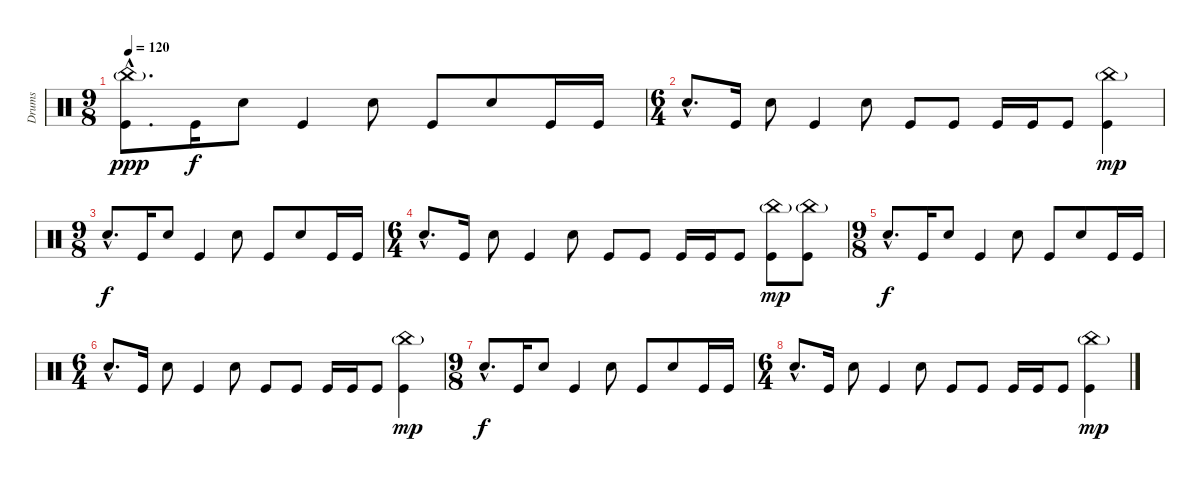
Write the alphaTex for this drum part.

\track ("Drums" "Drums") {instrument percussion}
\staff {score}
\articulation defaults
\ts (9 8)
\tempo 120
\clef neutral
\ks c
("China (hit)"{g hac} "Kick (hit)"{hac}).8{d dy ppp} "Kick (hit)".16{dy f} "Hand Clap (hit)".8 "Kick (hit)".4 "Hand Clap (hit)".8 "Kick (hit)".8 "Hand Clap (hit)".8 "Kick (hit)".16 "Kick (hit)".16 |
\ts (6 4)
"Hand Clap (hit)"{hac}.8{d} "Kick (hit)".16 "Hand Clap (hit)".8 "Kick (hit)".4 "Hand Clap (hit)".8 "Kick (hit)".8 "Kick (hit)".8 "Kick (hit)".16 "Kick (hit)".16 "Kick (hit)".8 ("China (hit)"{g} "Kick (hit)").4{dy mp} |
\ts (9 8)
"Hand Clap (hit)"{hac}.8{d dy f} "Kick (hit)".16 "Hand Clap (hit)".8 "Kick (hit)".4 "Hand Clap (hit)".8 "Kick (hit)".8 "Hand Clap (hit)".8 "Kick (hit)".16 "Kick (hit)".16 |
\ts (6 4)
"Hand Clap (hit)"{hac}.8{d} "Kick (hit)".16 "Hand Clap (hit)".8 "Kick (hit)".4 "Hand Clap (hit)".8 "Kick (hit)".8 "Kick (hit)".8 "Kick (hit)".16 "Kick (hit)".16 "Kick (hit)".8 ("China (hit)"{g} "Kick (hit)").8{dy mp} ("China (hit)"{g} "Kick (hit)").8 |
\ts (9 8)
"Hand Clap (hit)"{hac}.8{d dy f} "Kick (hit)".16 "Hand Clap (hit)".8 "Kick (hit)".4 "Hand Clap (hit)".8 "Kick (hit)".8 "Hand Clap (hit)".8 "Kick (hit)".16 "Kick (hit)".16 |
\ts (6 4)
"Hand Clap (hit)"{hac}.8{d} "Kick (hit)".16 "Hand Clap (hit)".8 "Kick (hit)".4 "Hand Clap (hit)".8 "Kick (hit)".8 "Kick (hit)".8 "Kick (hit)".16 "Kick (hit)".16 "Kick (hit)".8 ("China (hit)"{g} "Kick (hit)").4{dy mp} |
\ts (9 8)
"Hand Clap (hit)"{hac}.8{d dy f} "Kick (hit)".16 "Hand Clap (hit)".8 "Kick (hit)".4 "Hand Clap (hit)".8 "Kick (hit)".8 "Hand Clap (hit)".8 "Kick (hit)".16 "Kick (hit)".16 |
\ts (6 4)
"Hand Clap (hit)"{hac}.8{d} "Kick (hit)".16 "Hand Clap (hit)".8 "Kick (hit)".4 "Hand Clap (hit)".8 "Kick (hit)".8 "Kick (hit)".8 "Kick (hit)".16 "Kick (hit)".16 "Kick (hit)".8 ("China (hit)"{g} "Kick (hit)").4{dy mp}
